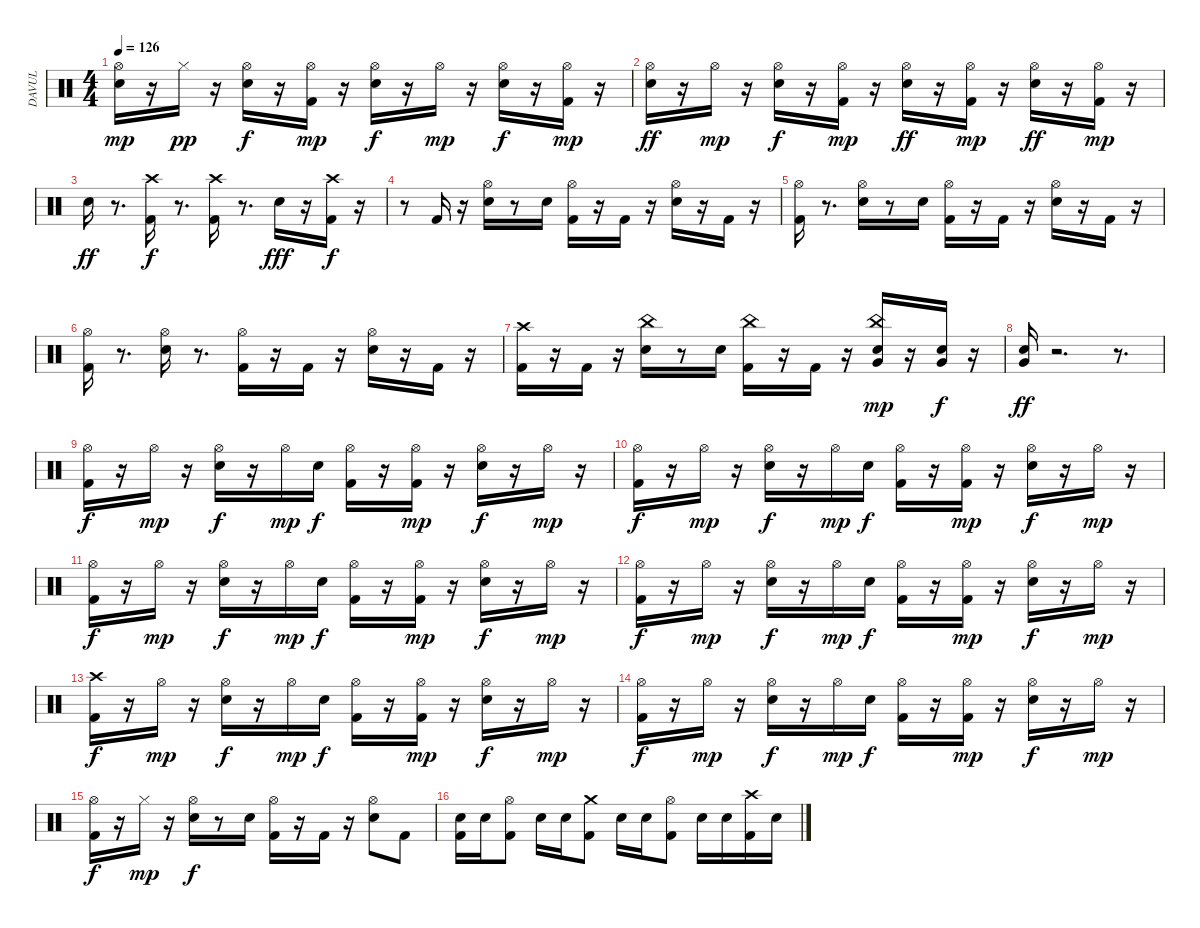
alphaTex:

\track ("DAVUL" "DAVUL") {instrument percussion}
\staff {score}
\articulation defaults
\ts (4 4)
\tempo 126
\clef neutral
\ks c
("Electric Snare (hit)" "Hi-Hat (open)").16{dy mp} r.16 "Hi-Hat (closed)".16{dy pp} r.16 ("Electric Snare (hit)" "Hi-Hat (open)").16{dy f} r.16 ("Kick (hit) 2" "Hi-Hat (open)").16{dy mp} r.16 ("Electric Snare (hit)" "Hi-Hat (open)").16{dy f} r.16 "Hi-Hat (open)".16{dy mp} r.16 ("Electric Snare (hit)" "Hi-Hat (open)").16{dy f} r.16 ("Kick (hit) 2" "Hi-Hat (open)").16{dy mp} r.16 |
("Hi-Hat (open)" "Electric Snare (hit)").16{dy ff} r.16 "Hi-Hat (open)".16{dy mp} r.16 ("Electric Snare (hit)" "Hi-Hat (open)").16{dy f} r.16 ("Kick (hit) 2" "Hi-Hat (open)").16{dy mp} r.16 ("Electric Snare (hit)" "Hi-Hat (open)").16{dy ff} r.16 ("Kick (hit) 2" "Hi-Hat (open)").16{dy mp} r.16 ("Electric Snare (hit)" "Hi-Hat (open)").16{dy ff} r.16 ("Kick (hit) 2" "Hi-Hat (open)").16{dy mp} r.16 |
"Electric Snare (hit)".16{dy ff} r.8{d} ("Kick (hit) 2" "Crash high (hit)").16{dy f} r.8{d} ("Kick (hit) 2" "Crash high (hit)").16 r.8{d} "Electric Snare (hit)".16{dy fff} r.16 ("Kick (hit) 2" "Crash high (hit)").16{dy f} r.16 |
r.8 "Kick (hit) 2".16 r.16 ("Hi-Hat (open)" "Electric Snare (hit)").16 r.8 "Electric Snare (hit)".16 ("Hi-Hat (open)" "Kick (hit) 2").16 r.16 "Kick (hit) 2".16 r.16 ("Hi-Hat (open)" "Electric Snare (hit)").16 r.16 "Kick (hit) 2".16 r.16 |
("Kick (hit) 2" "Hi-Hat (open)").16 r.8{d} ("Electric Snare (hit)" "Hi-Hat (open)").16 r.8 "Electric Snare (hit)".16 ("Kick (hit) 2" "Hi-Hat (open)").16 r.16 "Kick (hit) 2".16 r.16 ("Electric Snare (hit)" "Hi-Hat (open)").16 r.16 "Kick (hit) 2".16 r.16 |
("Kick (hit) 2" "Hi-Hat (open)").16 r.8{d} ("Hi-Hat (open)" "Electric Snare (hit)").16 r.8{d} ("Hi-Hat (open)" "Kick (hit) 2").16 r.16 "Kick (hit) 2".16 r.16 ("Hi-Hat (open)" "Electric Snare (hit)").16 r.16 "Kick (hit) 2".16 r.16 |
("Kick (hit) 2" "Crash high (hit)").16 r.16 "Kick (hit) 2".16 r.16 ("China (hit)" "Electric Snare (hit)").16 r.8 "Electric Snare (hit)".16 ("China (hit)" "Kick (hit) 2").16 r.16 "Kick (hit) 2".16 r.16 ("China (hit)" "Electric Snare (hit)" "Very Low Tom (hit)").16{dy mp} r.16 ("Electric Snare (hit)" "Very Low Tom (hit)").16{dy f} r.16 |
("Electric Snare (hit)" "Very Low Tom (hit)").16{dy ff} r.2{d} r.8{d} |
("Kick (hit) 2" "Hi-Hat (open)").16{dy f} r.16 "Hi-Hat (open)".16{dy mp} r.16 ("Hi-Hat (open)" "Electric Snare (hit)").16{dy f} r.16 "Hi-Hat (open)".16{dy mp} "Electric Snare (hit)".16{dy f} ("Hi-Hat (open)" "Kick (hit) 2").16 r.16 ("Hi-Hat (open)" "Kick (hit) 2").16{dy mp} r.16 ("Hi-Hat (open)" "Electric Snare (hit)").16{dy f} r.16 "Hi-Hat (open)".16{dy mp} r.16 |
("Kick (hit) 2" "Hi-Hat (open)").16{dy f} r.16 "Hi-Hat (open)".16{dy mp} r.16 ("Hi-Hat (open)" "Electric Snare (hit)").16{dy f} r.16 "Hi-Hat (open)".16{dy mp} "Electric Snare (hit)".16{dy f} ("Kick (hit) 2" "Hi-Hat (open)").16 r.16 ("Hi-Hat (open)" "Kick (hit) 2").16{dy mp} r.16 ("Hi-Hat (open)" "Electric Snare (hit)").16{dy f} r.16 "Hi-Hat (open)".16{dy mp} r.16 |
("Kick (hit) 2" "Hi-Hat (open)").16{dy f} r.16 "Hi-Hat (open)".16{dy mp} r.16 ("Hi-Hat (open)" "Electric Snare (hit)").16{dy f} r.16 "Hi-Hat (open)".16{dy mp} "Electric Snare (hit)".16{dy f} ("Hi-Hat (open)" "Kick (hit) 2").16 r.16 ("Hi-Hat (open)" "Kick (hit) 2").16{dy mp} r.16 ("Hi-Hat (open)" "Electric Snare (hit)").16{dy f} r.16 "Hi-Hat (open)".16{dy mp} r.16 |
("Kick (hit) 2" "Hi-Hat (open)").16{dy f} r.16 "Hi-Hat (open)".16{dy mp} r.16 ("Hi-Hat (open)" "Electric Snare (hit)").16{dy f} r.16 "Hi-Hat (open)".16{dy mp} "Electric Snare (hit)".16{dy f} ("Kick (hit) 2" "Hi-Hat (open)").16 r.16 ("Hi-Hat (open)" "Kick (hit) 2").16{dy mp} r.16 ("Hi-Hat (open)" "Electric Snare (hit)").16{dy f} r.16 "Hi-Hat (open)".16{dy mp} r.16 |
("Kick (hit) 2" "Crash high (hit)").16{dy f} r.16 "Hi-Hat (open)".16{dy mp} r.16 ("Hi-Hat (open)" "Electric Snare (hit)").16{dy f} r.16 "Hi-Hat (open)".16{dy mp} "Electric Snare (hit)".16{dy f} ("Hi-Hat (open)" "Kick (hit) 2").16 r.16 ("Hi-Hat (open)" "Kick (hit) 2").16{dy mp} r.16 ("Hi-Hat (open)" "Electric Snare (hit)").16{dy f} r.16 "Hi-Hat (open)".16{dy mp} r.16 |
("Kick (hit) 2" "Hi-Hat (open)").16{dy f} r.16 "Hi-Hat (open)".16{dy mp} r.16 ("Hi-Hat (open)" "Electric Snare (hit)").16{dy f} r.16 "Hi-Hat (open)".16{dy mp} "Electric Snare (hit)".16{dy f} ("Kick (hit) 2" "Hi-Hat (open)").16 r.16 ("Hi-Hat (open)" "Kick (hit) 2").16{dy mp} r.16 ("Hi-Hat (open)" "Electric Snare (hit)").16{dy f} r.16 "Hi-Hat (open)".16{dy mp} r.16 |
("Kick (hit) 2" "Hi-Hat (open)").16{dy f} r.16 "Hi-Hat (closed)".16{dy mp} r.16 ("Hi-Hat (open)" "Electric Snare (hit)").16{dy f} r.8 "Electric Snare (hit)".16 ("Hi-Hat (open)" "Kick (hit) 2").16 r.16 "Kick (hit) 2".16 r.16 ("Hi-Hat (open)" "Electric Snare (hit)").8 "Kick (hit) 2".8 |
("Electric Snare (hit)" "Kick (hit) 2").16 "Electric Snare (hit)".16 ("Hi-Hat (open)" "Kick (hit) 2").8 "Electric Snare (hit)".16 "Electric Snare (hit)".16 ("Crash medium (hit)" "Kick (hit) 2").8 "Electric Snare (hit)".16 "Electric Snare (hit)".16 ("Hi-Hat (open)" "Kick (hit) 2").8 "Electric Snare (hit)".16 "Electric Snare (hit)".16 ("Crash high (hit)" "Kick (hit) 2").16 "Electric Snare (hit)".16
